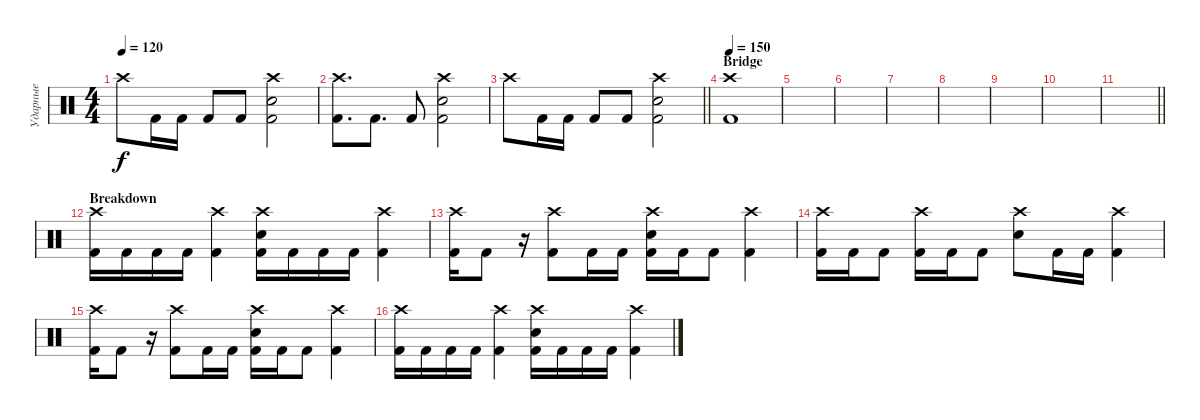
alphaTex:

\track ("Ударные" "Ударные") {instrument percussion}
\staff {score}
\articulation defaults
\ts (4 4)
\tempo 120
\clef neutral
\ks c "Crash high (hit)".8{dy f} "Kick (hit) 2".16 "Kick (hit) 2".16 "Kick (hit) 2".8 "Kick (hit) 2".8
("Crash high (hit)" "Electric Snare (hit)" "Kick (hit) 2").2 |
("Crash high (hit)" "Kick (hit) 2").8{d} "Kick (hit) 2".8{d} "Kick (hit) 2".8 ("Crash high (hit)" "Electric Snare (hit)" "Kick (hit) 2").2 |
\barLineRight lightlight "Crash high (hit)".8 "Kick (hit) 2".16 "Kick (hit) 2".16 "Kick (hit) 2".8 "Kick (hit) 2".8
("Crash high (hit)" "Electric Snare (hit)" "Kick (hit) 2").2 |
\section ("" "Bridge")
\tempo 150
("Crash high (hit)" "Kick (hit) 2").1 |
|
|
|
|
|
|
\barLineRight lightlight
|
\section ("" "Breakdown")
("Crash high (hit)" "Kick (hit) 2").16 "Kick (hit) 2".16 "Kick (hit) 2".16 "Kick (hit) 2".16 ("Crash high (hit)" "Kick (hit) 2").4 ("Crash high (hit)" "Electric Snare (hit)" "Kick (hit) 2").16 "Kick (hit) 2".16 "Kick (hit) 2".16 "Kick (hit) 2".16 ("Crash high (hit)" "Kick (hit) 2").4 |
("Crash high (hit)" "Kick (hit) 2").16 "Kick (hit) 2".8 r.16 ("Crash high (hit)" "Kick (hit) 2").8 "Kick (hit) 2".16 "Kick (hit) 2".16 ("Crash high (hit)" "Electric Snare (hit)" "Kick (hit) 2").16 "Kick (hit) 2".16 "Kick (hit) 2".8 ("Crash high (hit)" "Kick (hit) 2").4 |
("Crash high (hit)" "Kick (hit) 2").16 "Kick (hit) 2".16 "Kick (hit) 2".8 ("Crash high (hit)" "Kick (hit) 2").16 "Kick (hit) 2".16 "Kick (hit) 2".8 ("Crash high (hit)" "Electric Snare (hit)").8 "Kick (hit) 2".16 "Kick (hit) 2".16 ("Crash high (hit)" "Kick (hit) 2").4 |
("Crash high (hit)" "Kick (hit) 2").16 "Kick (hit) 2".8 r.16 ("Crash high (hit)" "Kick (hit) 2").8 "Kick (hit) 2".16 "Kick (hit) 2".16 ("Crash high (hit)" "Electric Snare (hit)" "Kick (hit) 2").16 "Kick (hit) 2".16 "Kick (hit) 2".8 ("Crash high (hit)" "Kick (hit) 2").4 |
("Crash high (hit)" "Kick (hit) 2").16 "Kick (hit) 2".16 "Kick (hit) 2".16 "Kick (hit) 2".16 ("Crash high (hit)" "Kick (hit) 2").4 ("Crash high (hit)" "Electric Snare (hit)" "Kick (hit) 2").16 "Kick (hit) 2".16 "Kick (hit) 2".16 "Kick (hit) 2".16 ("Crash high (hit)" "Kick (hit) 2").4
